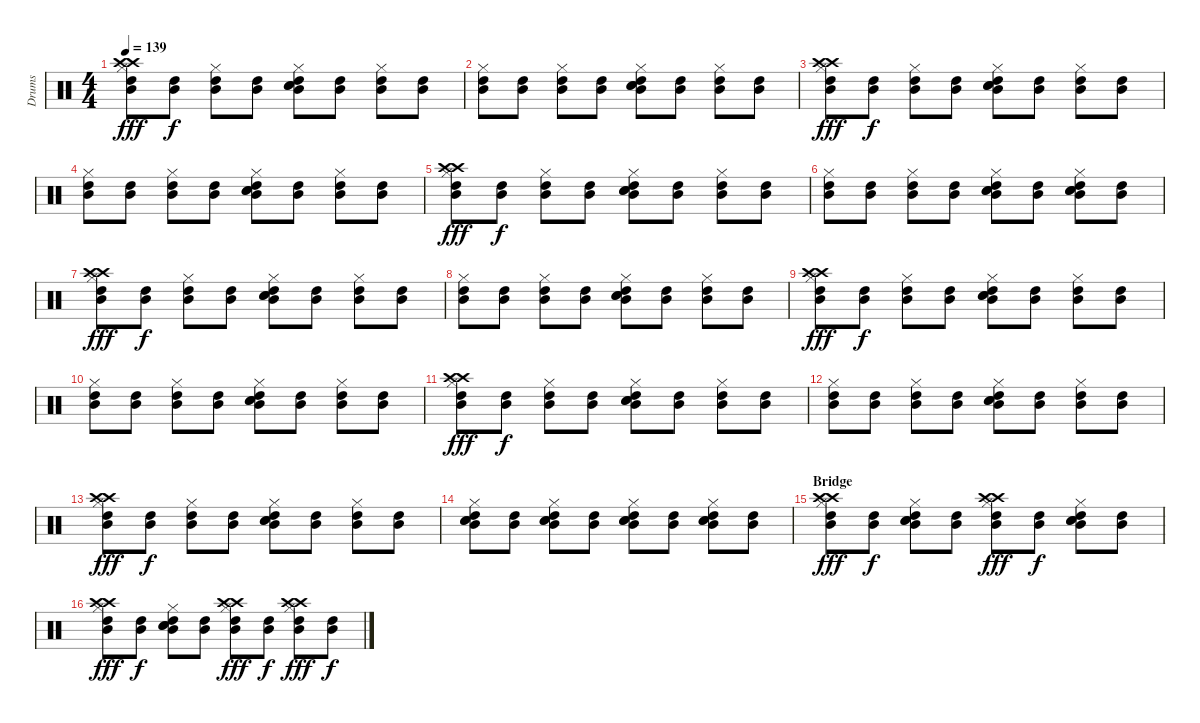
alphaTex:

\track ("Drums" "Drums") {instrument percussion}
\staff {score}
\articulation defaults
\ts (4 4)
\tempo 139
\clef neutral
\ks c
("Hi-Hat (closed)" "Mid Tom (hit)" "High Tom (hit)" "Crash high (hit)" "Crash high (hit)").8{dy fff} ("Mid Tom (hit)" "High Tom (hit)").8{dy f} ("Hi-Hat (closed)" "Mid Tom (hit)" "High Tom (hit)").8 ("Mid Tom (hit)" "High Tom (hit)").8 ("Hi-Hat (closed)" "Mid Tom (hit)" "High Tom (hit)" "Electric Snare (hit)" "Electric Snare (hit)").8 ("Mid Tom (hit)" "High Tom (hit)").8 ("Hi-Hat (closed)" "Mid Tom (hit)" "High Tom (hit)").8 ("Mid Tom (hit)" "High Tom (hit)").8 |
("Hi-Hat (closed)" "Mid Tom (hit)" "High Tom (hit)").8 ("Mid Tom (hit)" "High Tom (hit)").8 ("Hi-Hat (closed)" "Mid Tom (hit)" "High Tom (hit)").8 ("Mid Tom (hit)" "High Tom (hit)").8 ("Hi-Hat (closed)" "Mid Tom (hit)" "High Tom (hit)" "Electric Snare (hit)" "Electric Snare (hit)").8 ("Mid Tom (hit)" "High Tom (hit)").8 ("Hi-Hat (closed)" "Mid Tom (hit)" "High Tom (hit)").8 ("Mid Tom (hit)" "High Tom (hit)").8 |
("Hi-Hat (closed)" "Mid Tom (hit)" "High Tom (hit)" "Crash high (hit)" "Crash high (hit)").8{dy fff} ("Mid Tom (hit)" "High Tom (hit)").8{dy f} ("Hi-Hat (closed)" "Mid Tom (hit)" "High Tom (hit)").8 ("Mid Tom (hit)" "High Tom (hit)").8 ("Hi-Hat (closed)" "Mid Tom (hit)" "High Tom (hit)" "Electric Snare (hit)" "Electric Snare (hit)").8 ("Mid Tom (hit)" "High Tom (hit)").8 ("Hi-Hat (closed)" "Mid Tom (hit)" "High Tom (hit)").8 ("Mid Tom (hit)" "High Tom (hit)").8 |
("Hi-Hat (closed)" "Mid Tom (hit)" "High Tom (hit)").8 ("Mid Tom (hit)" "High Tom (hit)").8 ("Hi-Hat (closed)" "Mid Tom (hit)" "High Tom (hit)").8 ("Mid Tom (hit)" "High Tom (hit)").8 ("Hi-Hat (closed)" "Mid Tom (hit)" "High Tom (hit)" "Electric Snare (hit)" "Electric Snare (hit)").8 ("Mid Tom (hit)" "High Tom (hit)").8 ("Hi-Hat (closed)" "Mid Tom (hit)" "High Tom (hit)").8 ("Mid Tom (hit)" "High Tom (hit)").8 |
("Hi-Hat (closed)" "Mid Tom (hit)" "High Tom (hit)" "Crash high (hit)" "Crash high (hit)").8{dy fff} ("Mid Tom (hit)" "High Tom (hit)").8{dy f} ("Hi-Hat (closed)" "Mid Tom (hit)" "High Tom (hit)").8 ("Mid Tom (hit)" "High Tom (hit)").8 ("Hi-Hat (closed)" "Mid Tom (hit)" "High Tom (hit)" "Electric Snare (hit)" "Electric Snare (hit)").8 ("Mid Tom (hit)" "High Tom (hit)").8 ("Hi-Hat (closed)" "Mid Tom (hit)" "High Tom (hit)").8 ("Mid Tom (hit)" "High Tom (hit)").8 |
("Hi-Hat (closed)" "Mid Tom (hit)" "High Tom (hit)").8 ("Mid Tom (hit)" "High Tom (hit)").8 ("Hi-Hat (closed)" "Mid Tom (hit)" "High Tom (hit)").8 ("Mid Tom (hit)" "High Tom (hit)").8 ("Hi-Hat (closed)" "Mid Tom (hit)" "High Tom (hit)" "Electric Snare (hit)" "Electric Snare (hit)").8 ("Mid Tom (hit)" "High Tom (hit)").8 ("Hi-Hat (closed)" "Mid Tom (hit)" "High Tom (hit)" "Electric Snare (hit)" "Electric Snare (hit)").8 ("Mid Tom (hit)" "High Tom (hit)").8 |
("Hi-Hat (closed)" "Mid Tom (hit)" "High Tom (hit)" "Crash high (hit)" "Crash high (hit)").8{dy fff} ("Mid Tom (hit)" "High Tom (hit)").8{dy f} ("Hi-Hat (closed)" "Mid Tom (hit)" "High Tom (hit)").8 ("Mid Tom (hit)" "High Tom (hit)").8 ("Hi-Hat (closed)" "Mid Tom (hit)" "High Tom (hit)" "Electric Snare (hit)" "Electric Snare (hit)").8 ("Mid Tom (hit)" "High Tom (hit)").8 ("Hi-Hat (closed)" "Mid Tom (hit)" "High Tom (hit)").8 ("Mid Tom (hit)" "High Tom (hit)").8 |
("Hi-Hat (closed)" "Mid Tom (hit)" "High Tom (hit)").8 ("Mid Tom (hit)" "High Tom (hit)").8 ("Hi-Hat (closed)" "Mid Tom (hit)" "High Tom (hit)").8 ("Mid Tom (hit)" "High Tom (hit)").8 ("Hi-Hat (closed)" "Mid Tom (hit)" "High Tom (hit)" "Electric Snare (hit)" "Electric Snare (hit)").8 ("Mid Tom (hit)" "High Tom (hit)").8 ("Hi-Hat (closed)" "Mid Tom (hit)" "High Tom (hit)").8 ("Mid Tom (hit)" "High Tom (hit)").8 |
("Hi-Hat (closed)" "Mid Tom (hit)" "High Tom (hit)" "Crash high (hit)" "Crash high (hit)").8{dy fff} ("Mid Tom (hit)" "High Tom (hit)").8{dy f} ("Hi-Hat (closed)" "Mid Tom (hit)" "High Tom (hit)").8 ("Mid Tom (hit)" "High Tom (hit)").8 ("Hi-Hat (closed)" "Mid Tom (hit)" "High Tom (hit)" "Electric Snare (hit)" "Electric Snare (hit)").8 ("Mid Tom (hit)" "High Tom (hit)").8 ("Hi-Hat (closed)" "Mid Tom (hit)" "High Tom (hit)").8 ("Mid Tom (hit)" "High Tom (hit)").8 |
("Hi-Hat (closed)" "Mid Tom (hit)" "High Tom (hit)").8 ("Mid Tom (hit)" "High Tom (hit)").8 ("Hi-Hat (closed)" "Mid Tom (hit)" "High Tom (hit)").8 ("Mid Tom (hit)" "High Tom (hit)").8 ("Hi-Hat (closed)" "Mid Tom (hit)" "High Tom (hit)" "Electric Snare (hit)" "Electric Snare (hit)").8 ("Mid Tom (hit)" "High Tom (hit)").8 ("Hi-Hat (closed)" "Mid Tom (hit)" "High Tom (hit)").8 ("Mid Tom (hit)" "High Tom (hit)").8 |
("Hi-Hat (closed)" "Mid Tom (hit)" "High Tom (hit)" "Crash high (hit)" "Crash high (hit)").8{dy fff} ("Mid Tom (hit)" "High Tom (hit)").8{dy f} ("Hi-Hat (closed)" "Mid Tom (hit)" "High Tom (hit)").8 ("Mid Tom (hit)" "High Tom (hit)").8 ("Hi-Hat (closed)" "Mid Tom (hit)" "High Tom (hit)" "Electric Snare (hit)" "Electric Snare (hit)").8 ("Mid Tom (hit)" "High Tom (hit)").8 ("Hi-Hat (closed)" "Mid Tom (hit)" "High Tom (hit)").8 ("Mid Tom (hit)" "High Tom (hit)").8 |
("Hi-Hat (closed)" "Mid Tom (hit)" "High Tom (hit)").8 ("Mid Tom (hit)" "High Tom (hit)").8 ("Hi-Hat (closed)" "Mid Tom (hit)" "High Tom (hit)").8 ("Mid Tom (hit)" "High Tom (hit)").8 ("Hi-Hat (closed)" "Mid Tom (hit)" "High Tom (hit)" "Electric Snare (hit)" "Electric Snare (hit)").8 ("Mid Tom (hit)" "High Tom (hit)").8 ("Hi-Hat (closed)" "Mid Tom (hit)" "High Tom (hit)").8 ("Mid Tom (hit)" "High Tom (hit)").8 |
("Hi-Hat (closed)" "Mid Tom (hit)" "High Tom (hit)" "Crash high (hit)" "Crash high (hit)").8{dy fff} ("Mid Tom (hit)" "High Tom (hit)").8{dy f} ("Hi-Hat (closed)" "Mid Tom (hit)" "High Tom (hit)").8 ("Mid Tom (hit)" "High Tom (hit)").8 ("Hi-Hat (closed)" "Mid Tom (hit)" "High Tom (hit)" "Electric Snare (hit)" "Electric Snare (hit)").8 ("Mid Tom (hit)" "High Tom (hit)").8 ("Hi-Hat (closed)" "Mid Tom (hit)" "High Tom (hit)").8 ("Mid Tom (hit)" "High Tom (hit)").8 |
("Hi-Hat (closed)" "Mid Tom (hit)" "High Tom (hit)" "Electric Snare (hit)" "Electric Snare (hit)").8 ("Mid Tom (hit)" "High Tom (hit)").8 ("Hi-Hat (closed)" "Mid Tom (hit)" "High Tom (hit)" "Electric Snare (hit)" "Electric Snare (hit)").8 ("Mid Tom (hit)" "High Tom (hit)").8 ("Hi-Hat (closed)" "Mid Tom (hit)" "High Tom (hit)" "Electric Snare (hit)" "Electric Snare (hit)").8 ("Mid Tom (hit)" "High Tom (hit)").8 ("Hi-Hat (closed)" "Mid Tom (hit)" "High Tom (hit)" "Electric Snare (hit)" "Electric Snare (hit)").8 ("Mid Tom (hit)" "High Tom (hit)").8 |
\section ("" "Bridge")
("Hi-Hat (closed)" "Mid Tom (hit)" "High Tom (hit)" "Crash high (hit)" "Crash high (hit)").8{dy fff} ("Mid Tom (hit)" "High Tom (hit)").8{dy f} ("Hi-Hat (closed)" "Mid Tom (hit)" "High Tom (hit)" "Electric Snare (hit)" "Electric Snare (hit)").8 ("Mid Tom (hit)" "High Tom (hit)").8 ("Hi-Hat (closed)" "Mid Tom (hit)" "High Tom (hit)" "Crash high (hit)" "Crash high (hit)").8{dy fff} ("Mid Tom (hit)" "High Tom (hit)").8{dy f} ("Hi-Hat (closed)" "Mid Tom (hit)" "High Tom (hit)" "Electric Snare (hit)" "Electric Snare (hit)").8 ("Mid Tom (hit)" "High Tom (hit)").8 |
("Hi-Hat (closed)" "Mid Tom (hit)" "High Tom (hit)" "Crash high (hit)" "Crash high (hit)").8{dy fff} ("Mid Tom (hit)" "High Tom (hit)").8{dy f} ("Hi-Hat (closed)" "Mid Tom (hit)" "High Tom (hit)" "Electric Snare (hit)" "Electric Snare (hit)").8 ("Mid Tom (hit)" "High Tom (hit)").8 ("Hi-Hat (closed)" "Mid Tom (hit)" "High Tom (hit)" "Crash high (hit)" "Crash high (hit)").8{dy fff} ("Mid Tom (hit)" "High Tom (hit)").8{dy f} ("Hi-Hat (closed)" "Mid Tom (hit)" "High Tom (hit)" "Crash high (hit)" "Crash high (hit)").8{dy fff} ("Mid Tom (hit)" "High Tom (hit)").8{dy f}
